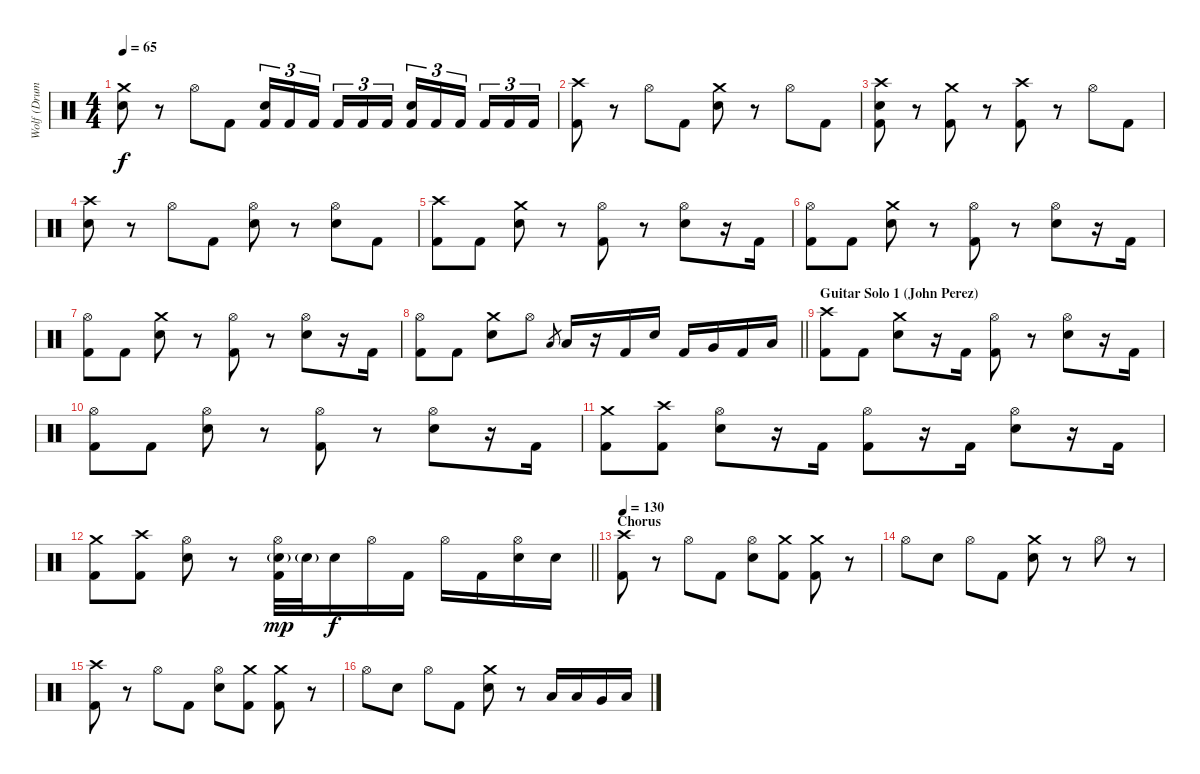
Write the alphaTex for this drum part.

\track ("Wolf (Drums)" "Wolf (Drum") {instrument percussion}
\staff {score}
\articulation defaults
\ts (4 4)
\tempo 65
\clef neutral
\ks c
("Crash medium (hit)" "Snare (hit) 2").8{dy f} r.8 "Hi-Hat (open)".8 "Kick (hit) 2".8 ("Snare (hit) 2" "Kick (hit) 2").16{tu (3 2)} "Kick (hit) 2".16{tu (3 2)} "Kick (hit) 2".16{tu (3 2) beam splitsecondary} "Kick (hit) 2".16{tu (3 2)} "Kick (hit) 2".16{tu (3 2)} "Kick (hit) 2".16{tu (3 2)} ("Snare (hit) 2" "Kick (hit) 2").16{tu (3 2)} "Kick (hit) 2".16{tu (3 2)} "Kick (hit) 2".16{tu (3 2) beam splitsecondary} "Kick (hit) 2".16{tu (3 2)} "Kick (hit) 2".16{tu (3 2)} "Kick (hit) 2".16{tu (3 2)} |
("Crash high (hit)" "Kick (hit) 2").8 r.8 "Hi-Hat (open)".8 "Kick (hit) 2".8 ("Crash medium (hit)" "Snare (hit) 2").8 r.8 "Hi-Hat (open)".8 "Kick (hit) 2".8 |
("Crash high (hit)" "Snare (hit) 2" "Kick (hit) 2").8 r.8 ("Crash medium (hit)" "Kick (hit) 2").8 r.8 ("Crash high (hit)" "Kick (hit) 2").8 r.8 "Hi-Hat (open)".8 "Kick (hit) 2".8 |
("Crash high (hit)" "Snare (hit) 2").8 r.8 "Hi-Hat (open)".8 "Kick (hit) 2".8 ("Hi-Hat (open)" "Snare (hit) 2").8 r.8 ("Hi-Hat (open)" "Snare (hit) 2").8 "Kick (hit) 2".8 |
("Crash high (hit)" "Kick (hit) 2").8 "Kick (hit) 2".8 ("Crash medium (hit)" "Snare (hit) 2").8 r.8 ("Hi-Hat (open)" "Kick (hit) 2").8 r.8 ("Hi-Hat (open)" "Snare (hit) 2").8 r.16 "Kick (hit) 2".16 |
("Hi-Hat (open)" "Kick (hit) 2").8 "Kick (hit) 2".8 ("Crash medium (hit)" "Snare (hit) 2").8 r.8 ("Hi-Hat (open)" "Kick (hit) 2").8 r.8 ("Hi-Hat (open)" "Snare (hit) 2").8 r.16 "Kick (hit) 2".16 |
("Hi-Hat (open)" "Kick (hit) 2").8 "Kick (hit) 2".8 ("Crash medium (hit)" "Snare (hit) 2").8 r.8 ("Hi-Hat (open)" "Kick (hit) 2").8 r.8 ("Hi-Hat (open)" "Snare (hit) 2").8 r.16 "Kick (hit) 2".16 |
\barLineRight lightlight
("Hi-Hat (open)" "Kick (hit) 2").8 "Kick (hit) 2".8 ("Crash medium (hit)" "Snare (hit) 2").8 "Hi-Hat (open)".8 "Low Tom (hit)".8{gr} "Low Tom (hit)".16 r.16 "Kick (hit) 2".16 "Snare (hit) 2".16 "Kick (hit) 2".16 "Very Low Tom (hit)".16 "Kick (hit) 2".16 "Low Floor Tom (hit)".16 |
\section ("" "Guitar Solo 1 (John Perez)")
("Crash high (hit)" "Kick (hit) 2").8 "Kick (hit) 2".8 ("Crash medium (hit)" "Snare (hit) 2").8 r.16 "Kick (hit) 2".16 ("Hi-Hat (open)" "Kick (hit) 2").8 r.8 ("Hi-Hat (open)" "Snare (hit) 2").8 r.16 "Kick (hit) 2".16 |
("Hi-Hat (open)" "Kick (hit) 2").8 "Kick (hit) 2".8 ("Hi-Hat (open)" "Snare (hit) 2").8 r.8 ("Hi-Hat (open)" "Kick (hit) 2").8 r.8 ("Hi-Hat (open)" "Snare (hit) 2").8 r.16 "Kick (hit) 2".16 |
("Crash medium (hit)" "Kick (hit) 2").8 ("Crash high (hit)" "Kick (hit) 2").8 ("Hi-Hat (open)" "Snare (hit) 2").8 r.16 "Kick (hit) 2".16 ("Hi-Hat (open)" "Kick (hit) 2").8 r.16 "Kick (hit) 2".16 ("Hi-Hat (open)" "Snare (hit) 2").8 r.16 "Kick (hit) 2".16 |
\barLineRight lightlight
("Crash medium (hit)" "Kick (hit) 2").8 ("Crash high (hit)" "Kick (hit) 2").8 ("Hi-Hat (open)" "Snare (hit) 2").8 r.8 ("Hi-Hat (open)" "Snare (hit) 2"{g} "Kick (hit) 2").32{dy mp} "Snare (hit) 2"{g}.32 "Snare (hit) 2".16{dy f} "Hi-Hat (open)".16 "Kick (hit) 2".16 "Hi-Hat (open)".16 "Kick (hit) 2".16 ("Hi-Hat (open)" "Snare (hit) 2").16 "Snare (hit) 2".16 |
\section ("" "Chorus")
\tempo 130
("Crash high (hit)" "Kick (hit) 2").8 r.8 "Hi-Hat (open)".8 "Kick (hit) 2".8 ("Hi-Hat (open)" "Snare (hit) 2").8 ("Crash medium (hit)" "Kick (hit) 2").8 ("Crash medium (hit)" "Kick (hit) 2").8 r.8 |
"Hi-Hat (open)".8{beam merge} "Snare (hit) 2".8 "Hi-Hat (open)".8 "Kick (hit) 2".8 ("Crash medium (hit)" "Snare (hit) 2").8 r.8 "Hi-Hat (open)".8 r.8 |
("Crash high (hit)" "Kick (hit) 2").8 r.8 "Hi-Hat (open)".8 "Kick (hit) 2".8 ("Hi-Hat (open)" "Snare (hit) 2").8 ("Crash medium (hit)" "Kick (hit) 2").8 ("Crash medium (hit)" "Kick (hit) 2").8 r.8 |
"Hi-Hat (open)".8{beam merge} "Snare (hit) 2".8 "Hi-Hat (open)".8 "Kick (hit) 2".8 ("Crash medium (hit)" "Snare (hit) 2").8 r.8 "Low Tom (hit)".16 "Low Tom (hit)".16 "Very Low Tom (hit)".16 "Low Floor Tom (hit)".16
